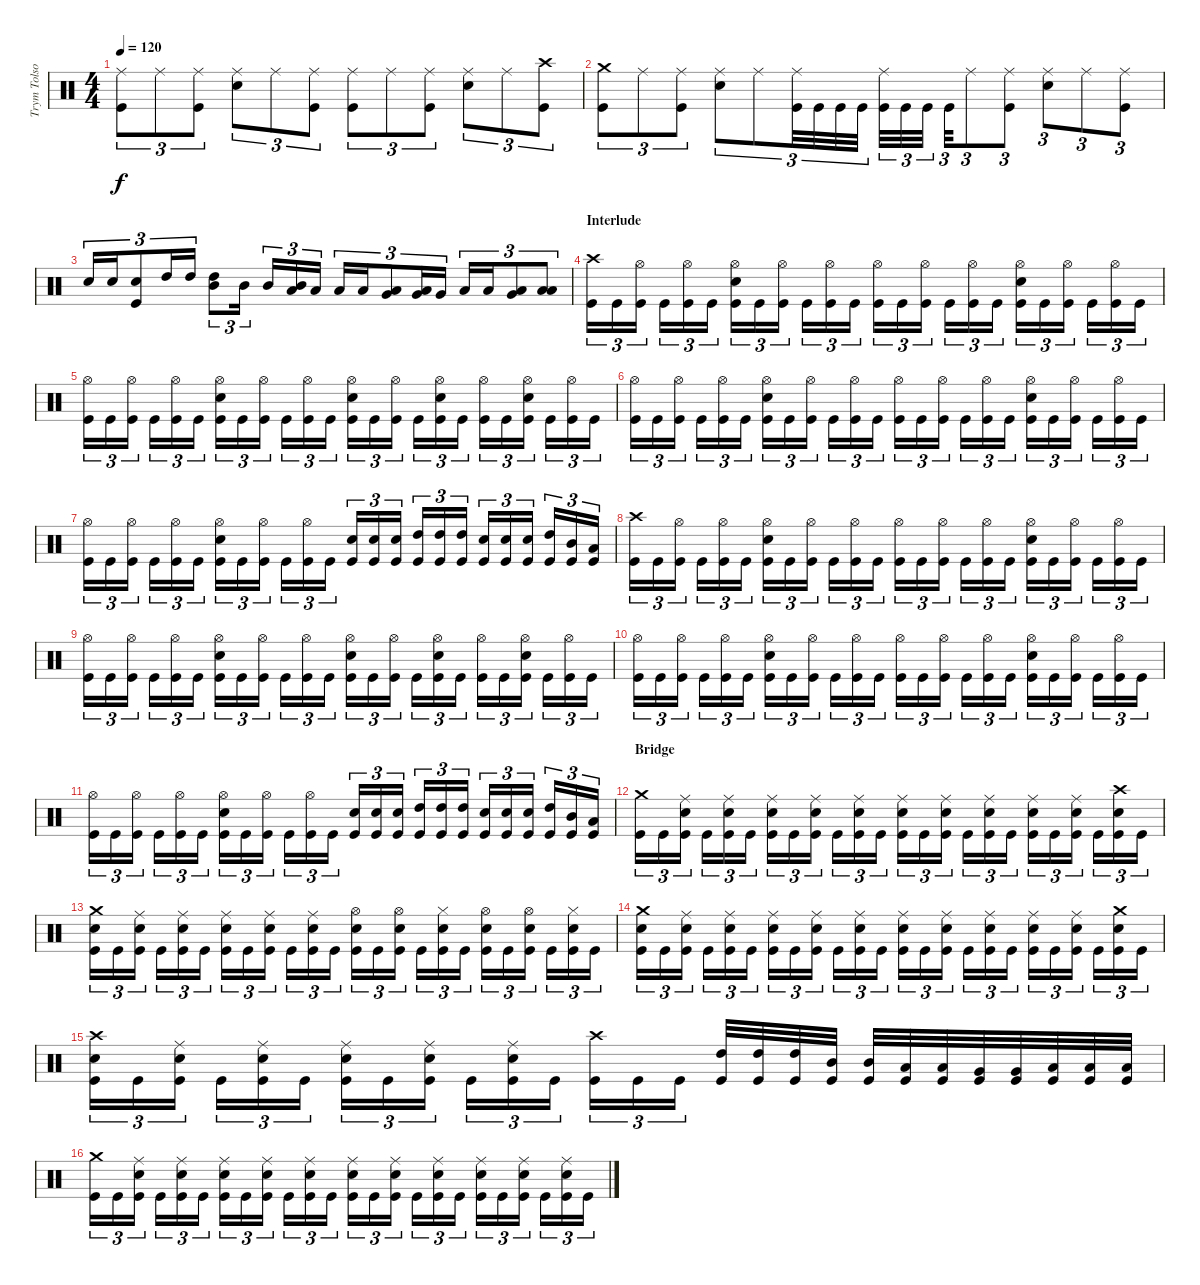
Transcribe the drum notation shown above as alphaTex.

\track ("Trym Tolson" "Trym Tolso") {instrument percussion}
\staff {score}
\articulation defaults
\ts (4 4)
\tempo 120
\clef neutral
\ks c
("Ride (middle)" "Kick (hit)").8{tu (3 2) dy f} "Ride (middle)".8{tu (3 2)} ("Ride (middle)" "Kick (hit)").8{tu (3 2)} ("Ride (middle)" "Electric Snare (hit)").8{tu (3 2)} "Ride (middle)".8{tu (3 2)} ("Ride (middle)" "Kick (hit)").8{tu (3 2)} ("Ride (middle)" "Kick (hit)").8{tu (3 2)} "Ride (middle)".8{tu (3 2)} ("Ride (middle)" "Kick (hit)").8{tu (3 2)} ("Ride (middle)" "Electric Snare (hit)").8{tu (3 2)} "Ride (middle)".8{tu (3 2)} ("Crash high (hit)" "Kick (hit)").8{tu (3 2)} |
("Crash medium (hit)" "Kick (hit)").8{tu (3 2)} "Ride (middle)".8{tu (3 2)} ("Ride (middle)" "Kick (hit)").8{tu (3 2)} ("Ride (middle)" "Electric Snare (hit)").8{tu (3 2)} "Ride (middle)".8{tu (3 2)} ("Ride (middle)" "Kick (hit)").32{tu (3 2)} "Kick (hit)".32{tu (3 2)} "Kick (hit)".32{tu (3 2)} "Kick (hit)".32{tu (3 2)} ("Ride (middle)" "Kick (hit)").32{tu (3 2)} "Kick (hit)".32{tu (3 2)} "Kick (hit)".32{tu (3 2)} "Kick (hit)".32{tu (3 2)} "Ride (middle)".8{tu (3 2)} ("Ride (middle)" "Kick (hit)").8{tu (3 2)} ("Ride (middle)" "Electric Snare (hit)").8{tu (3 2)} "Ride (middle)".8{tu (3 2)} ("Ride (middle)" "Kick (hit)").8{tu (3 2)} |
"Electric Snare (hit)".16{tu (3 2)} "Electric Snare (hit)".16{tu (3 2)} ("Electric Snare (hit)" "Kick (hit)").8{tu (3 2)} "High Tom (hit)".16{tu (3 2)} "High Tom (hit)".16{tu (3 2)} ("Mid Tom (hit)" "High Tom (hit)").8{tu (3 2)} "Mid Tom (hit)".16{tu (3 2)} "Mid Tom (hit)".16{tu (3 2)} ("Low Tom (hit)" "Mid Tom (hit)").16{tu (3 2)} "Low Tom (hit)".16{tu (3 2)} "Low Tom (hit)".16{tu (3 2)} "Low Tom (hit)".16{tu (3 2)} ("Very Low Tom (hit)" "Low Tom (hit)").8{tu (3 2)} ("Very Low Tom (hit)" "Low Tom (hit)").16{tu (3 2)} "Very Low Tom (hit)".16{tu (3 2)} "Low Floor Tom (hit)".16{tu (3 2)} "Low Floor Tom (hit)".16{tu (3 2)} ("Low Floor Tom (hit)" "Very Low Tom (hit)").8{tu (3 2)} ("Low Floor Tom (hit)" "Low Floor Tom (hit)").8{tu (3 2)} |
\section ("" "Interlude")
("Crash high (hit)" "Kick (hit)").16{tu (3 2)} "Kick (hit)".16{tu (3 2)} ("Hi-Hat (open)" "Kick (hit)").16{tu (3 2)} "Kick (hit)".16{tu (3 2)} ("Hi-Hat (open)" "Kick (hit)").16{tu (3 2)} "Kick (hit)".16{tu (3 2)} ("Hi-Hat (open)" "Electric Snare (hit)" "Kick (hit)").16{tu (3 2)} "Kick (hit)".16{tu (3 2)} ("Hi-Hat (open)" "Kick (hit)").16{tu (3 2)} "Kick (hit)".16{tu (3 2)} ("Hi-Hat (open)" "Kick (hit)").16{tu (3 2)} "Kick (hit)".16{tu (3 2)} ("Hi-Hat (open)" "Kick (hit)").16{tu (3 2)} "Kick (hit)".16{tu (3 2)} ("Hi-Hat (open)" "Kick (hit)").16{tu (3 2)} "Kick (hit)".16{tu (3 2)} ("Hi-Hat (open)" "Kick (hit)").16{tu (3 2)} "Kick (hit)".16{tu (3 2)} ("Hi-Hat (open)" "Electric Snare (hit)" "Kick (hit)").16{tu (3 2)} "Kick (hit)".16{tu (3 2)} ("Hi-Hat (open)" "Kick (hit)").16{tu (3 2)} "Kick (hit)".16{tu (3 2)} ("Hi-Hat (open)" "Kick (hit)").16{tu (3 2)} "Kick (hit)".16{tu (3 2)} |
("Hi-Hat (open)" "Kick (hit)").16{tu (3 2)} "Kick (hit)".16{tu (3 2)} ("Hi-Hat (open)" "Kick (hit)").16{tu (3 2)} "Kick (hit)".16{tu (3 2)} ("Hi-Hat (open)" "Kick (hit)").16{tu (3 2)} "Kick (hit)".16{tu (3 2)} ("Hi-Hat (open)" "Electric Snare (hit)" "Kick (hit)").16{tu (3 2)} "Kick (hit)".16{tu (3 2)} ("Hi-Hat (open)" "Kick (hit)").16{tu (3 2)} "Kick (hit)".16{tu (3 2)} ("Hi-Hat (open)" "Kick (hit)").16{tu (3 2)} "Kick (hit)".16{tu (3 2)} ("Hi-Hat (open)" "Electric Snare (hit)" "Kick (hit)").16{tu (3 2)} "Kick (hit)".16{tu (3 2)} ("Hi-Hat (open)" "Kick (hit)").16{tu (3 2)} "Kick (hit)".16{tu (3 2)} ("Hi-Hat (open)" "Electric Snare (hit)" "Kick (hit)").16{tu (3 2)} "Kick (hit)".16{tu (3 2)} ("Hi-Hat (open)" "Kick (hit)").16{tu (3 2)} "Kick (hit)".16{tu (3 2)} ("Hi-Hat (open)" "Electric Snare (hit)" "Kick (hit)").16{tu (3 2)} "Kick (hit)".16{tu (3 2)} ("Hi-Hat (open)" "Kick (hit)").16{tu (3 2)} "Kick (hit)".16{tu (3 2)} |
("Hi-Hat (open)" "Kick (hit)").16{tu (3 2)} "Kick (hit)".16{tu (3 2)} ("Hi-Hat (open)" "Kick (hit)").16{tu (3 2)} "Kick (hit)".16{tu (3 2)} ("Hi-Hat (open)" "Kick (hit)").16{tu (3 2)} "Kick (hit)".16{tu (3 2)} ("Hi-Hat (open)" "Electric Snare (hit)" "Kick (hit)").16{tu (3 2)} "Kick (hit)".16{tu (3 2)} ("Hi-Hat (open)" "Kick (hit)").16{tu (3 2)} "Kick (hit)".16{tu (3 2)} ("Hi-Hat (open)" "Kick (hit)").16{tu (3 2)} "Kick (hit)".16{tu (3 2)} ("Hi-Hat (open)" "Kick (hit)").16{tu (3 2)} "Kick (hit)".16{tu (3 2)} ("Hi-Hat (open)" "Kick (hit)").16{tu (3 2)} "Kick (hit)".16{tu (3 2)} ("Hi-Hat (open)" "Kick (hit)").16{tu (3 2)} "Kick (hit)".16{tu (3 2)} ("Hi-Hat (open)" "Electric Snare (hit)" "Kick (hit)").16{tu (3 2)} "Kick (hit)".16{tu (3 2)} ("Hi-Hat (open)" "Kick (hit)").16{tu (3 2)} "Kick (hit)".16{tu (3 2)} ("Hi-Hat (open)" "Kick (hit)").16{tu (3 2)} "Kick (hit)".16{tu (3 2)} |
("Hi-Hat (open)" "Kick (hit)").16{tu (3 2)} "Kick (hit)".16{tu (3 2)} ("Hi-Hat (open)" "Kick (hit)").16{tu (3 2)} "Kick (hit)".16{tu (3 2)} ("Hi-Hat (open)" "Kick (hit)").16{tu (3 2)} "Kick (hit)".16{tu (3 2)} ("Hi-Hat (open)" "Electric Snare (hit)" "Kick (hit)").16{tu (3 2)} "Kick (hit)".16{tu (3 2)} ("Hi-Hat (open)" "Kick (hit)").16{tu (3 2)} "Kick (hit)".16{tu (3 2)} ("Hi-Hat (open)" "Kick (hit)").16{tu (3 2)} "Kick (hit)".16{tu (3 2)} ("Electric Snare (hit)" "Kick (hit)").16{tu (3 2)} ("Electric Snare (hit)" "Kick (hit)").16{tu (3 2)} ("Electric Snare (hit)" "Kick (hit)").16{tu (3 2)} ("High Tom (hit)" "Kick (hit)").16{tu (3 2)} ("High Tom (hit)" "Kick (hit)").16{tu (3 2)} ("High Tom (hit)" "Kick (hit)").16{tu (3 2)} ("Electric Snare (hit)" "Kick (hit)").16{tu (3 2)} ("Electric Snare (hit)" "Kick (hit)").16{tu (3 2)} ("Electric Snare (hit)" "Kick (hit)").16{tu (3 2)} ("High Tom (hit)" "Kick (hit)").16{tu (3 2)} ("Mid Tom (hit)" "Kick (hit)").16{tu (3 2)} ("Low Tom (hit)" "Kick (hit)").16{tu (3 2)} |
("Crash high (hit)" "Kick (hit)").16{tu (3 2)} "Kick (hit)".16{tu (3 2)} ("Hi-Hat (open)" "Kick (hit)").16{tu (3 2)} "Kick (hit)".16{tu (3 2)} ("Hi-Hat (open)" "Kick (hit)").16{tu (3 2)} "Kick (hit)".16{tu (3 2)} ("Hi-Hat (open)" "Electric Snare (hit)" "Kick (hit)").16{tu (3 2)} "Kick (hit)".16{tu (3 2)} ("Hi-Hat (open)" "Kick (hit)").16{tu (3 2)} "Kick (hit)".16{tu (3 2)} ("Hi-Hat (open)" "Kick (hit)").16{tu (3 2)} "Kick (hit)".16{tu (3 2)} ("Hi-Hat (open)" "Kick (hit)").16{tu (3 2)} "Kick (hit)".16{tu (3 2)} ("Hi-Hat (open)" "Kick (hit)").16{tu (3 2)} "Kick (hit)".16{tu (3 2)} ("Hi-Hat (open)" "Kick (hit)").16{tu (3 2)} "Kick (hit)".16{tu (3 2)} ("Hi-Hat (open)" "Electric Snare (hit)" "Kick (hit)").16{tu (3 2)} "Kick (hit)".16{tu (3 2)} ("Hi-Hat (open)" "Kick (hit)").16{tu (3 2)} "Kick (hit)".16{tu (3 2)} ("Hi-Hat (open)" "Kick (hit)").16{tu (3 2)} "Kick (hit)".16{tu (3 2)} |
("Hi-Hat (open)" "Kick (hit)").16{tu (3 2)} "Kick (hit)".16{tu (3 2)} ("Hi-Hat (open)" "Kick (hit)").16{tu (3 2)} "Kick (hit)".16{tu (3 2)} ("Hi-Hat (open)" "Kick (hit)").16{tu (3 2)} "Kick (hit)".16{tu (3 2)} ("Hi-Hat (open)" "Electric Snare (hit)" "Kick (hit)").16{tu (3 2)} "Kick (hit)".16{tu (3 2)} ("Hi-Hat (open)" "Kick (hit)").16{tu (3 2)} "Kick (hit)".16{tu (3 2)} ("Hi-Hat (open)" "Kick (hit)").16{tu (3 2)} "Kick (hit)".16{tu (3 2)} ("Hi-Hat (open)" "Electric Snare (hit)" "Kick (hit)").16{tu (3 2)} "Kick (hit)".16{tu (3 2)} ("Hi-Hat (open)" "Kick (hit)").16{tu (3 2)} "Kick (hit)".16{tu (3 2)} ("Hi-Hat (open)" "Electric Snare (hit)" "Kick (hit)").16{tu (3 2)} "Kick (hit)".16{tu (3 2)} ("Hi-Hat (open)" "Kick (hit)").16{tu (3 2)} "Kick (hit)".16{tu (3 2)} ("Hi-Hat (open)" "Electric Snare (hit)" "Kick (hit)").16{tu (3 2)} "Kick (hit)".16{tu (3 2)} ("Hi-Hat (open)" "Kick (hit)").16{tu (3 2)} "Kick (hit)".16{tu (3 2)} |
("Hi-Hat (open)" "Kick (hit)").16{tu (3 2)} "Kick (hit)".16{tu (3 2)} ("Hi-Hat (open)" "Kick (hit)").16{tu (3 2)} "Kick (hit)".16{tu (3 2)} ("Hi-Hat (open)" "Kick (hit)").16{tu (3 2)} "Kick (hit)".16{tu (3 2)} ("Hi-Hat (open)" "Electric Snare (hit)" "Kick (hit)").16{tu (3 2)} "Kick (hit)".16{tu (3 2)} ("Hi-Hat (open)" "Kick (hit)").16{tu (3 2)} "Kick (hit)".16{tu (3 2)} ("Hi-Hat (open)" "Kick (hit)").16{tu (3 2)} "Kick (hit)".16{tu (3 2)} ("Hi-Hat (open)" "Kick (hit)").16{tu (3 2)} "Kick (hit)".16{tu (3 2)} ("Hi-Hat (open)" "Kick (hit)").16{tu (3 2)} "Kick (hit)".16{tu (3 2)} ("Hi-Hat (open)" "Kick (hit)").16{tu (3 2)} "Kick (hit)".16{tu (3 2)} ("Hi-Hat (open)" "Electric Snare (hit)" "Kick (hit)").16{tu (3 2)} "Kick (hit)".16{tu (3 2)} ("Hi-Hat (open)" "Kick (hit)").16{tu (3 2)} "Kick (hit)".16{tu (3 2)} ("Hi-Hat (open)" "Kick (hit)").16{tu (3 2)} "Kick (hit)".16{tu (3 2)} |
("Hi-Hat (open)" "Kick (hit)").16{tu (3 2)} "Kick (hit)".16{tu (3 2)} ("Hi-Hat (open)" "Kick (hit)").16{tu (3 2)} "Kick (hit)".16{tu (3 2)} ("Hi-Hat (open)" "Kick (hit)").16{tu (3 2)} "Kick (hit)".16{tu (3 2)} ("Hi-Hat (open)" "Electric Snare (hit)" "Kick (hit)").16{tu (3 2)} "Kick (hit)".16{tu (3 2)} ("Hi-Hat (open)" "Kick (hit)").16{tu (3 2)} "Kick (hit)".16{tu (3 2)} ("Hi-Hat (open)" "Kick (hit)").16{tu (3 2)} "Kick (hit)".16{tu (3 2)} ("Electric Snare (hit)" "Kick (hit)").16{tu (3 2)} ("Electric Snare (hit)" "Kick (hit)").16{tu (3 2)} ("Electric Snare (hit)" "Kick (hit)").16{tu (3 2)} ("High Tom (hit)" "Kick (hit)").16{tu (3 2)} ("High Tom (hit)" "Kick (hit)").16{tu (3 2)} ("High Tom (hit)" "Kick (hit)").16{tu (3 2)} ("Electric Snare (hit)" "Kick (hit)").16{tu (3 2)} ("Electric Snare (hit)" "Kick (hit)").16{tu (3 2)} ("Electric Snare (hit)" "Kick (hit)").16{tu (3 2)} ("High Tom (hit)" "Kick (hit)").16{tu (3 2)} ("Mid Tom (hit)" "Kick (hit)").16{tu (3 2)} ("Low Tom (hit)" "Kick (hit)").16{tu (3 2)} |
\section ("" "Bridge")
("Crash medium (hit)" "Kick (hit)").16{tu (3 2)} "Kick (hit)".16{tu (3 2)} ("Ride (middle)" "Electric Snare (hit)" "Kick (hit)").16{tu (3 2)} "Kick (hit)".16{tu (3 2)} ("Ride (middle)" "Electric Snare (hit)" "Kick (hit)").16{tu (3 2)} "Kick (hit)".16{tu (3 2)} ("Ride (middle)" "Electric Snare (hit)" "Kick (hit)").16{tu (3 2)} "Kick (hit)".16{tu (3 2)} ("Ride (middle)" "Electric Snare (hit)" "Kick (hit)").16{tu (3 2)} "Kick (hit)".16{tu (3 2)} ("Ride (middle)" "Electric Snare (hit)" "Kick (hit)").16{tu (3 2)} "Kick (hit)".16{tu (3 2)} ("Ride (middle)" "Electric Snare (hit)" "Kick (hit)").16{tu (3 2)} "Kick (hit)".16{tu (3 2)} ("Ride (middle)" "Electric Snare (hit)" "Kick (hit)").16{tu (3 2)} "Kick (hit)".16{tu (3 2)} ("Ride (middle)" "Electric Snare (hit)" "Kick (hit)").16{tu (3 2)} "Kick (hit)".16{tu (3 2)} ("Ride (middle)" "Electric Snare (hit)" "Kick (hit)").16{tu (3 2)} "Kick (hit)".16{tu (3 2)} ("Ride (middle)" "Electric Snare (hit)" "Kick (hit)").16{tu (3 2)} "Kick (hit)".16{tu (3 2)} ("Crash high (hit)" "Electric Snare (hit)" "Kick (hit)").16{tu (3 2)} "Kick (hit)".16{tu (3 2)} |
("Crash medium (hit)" "Electric Snare (hit)" "Kick (hit)").16{tu (3 2)} "Kick (hit)".16{tu (3 2)} ("Ride (middle)" "Electric Snare (hit)" "Kick (hit)").16{tu (3 2)} "Kick (hit)".16{tu (3 2)} ("Ride (middle)" "Electric Snare (hit)" "Kick (hit)").16{tu (3 2)} "Kick (hit)".16{tu (3 2)} ("Ride (middle)" "Electric Snare (hit)" "Kick (hit)").16{tu (3 2)} "Kick (hit)".16{tu (3 2)} ("Ride (middle)" "Electric Snare (hit)" "Kick (hit)").16{tu (3 2)} "Kick (hit)".16{tu (3 2)} ("Ride (middle)" "Electric Snare (hit)" "Kick (hit)").16{tu (3 2)} "Kick (hit)".16{tu (3 2)} ("Hi-Hat (open)" "Electric Snare (hit)" "Kick (hit)").16{tu (3 2)} "Kick (hit)".16{tu (3 2)} ("Hi-Hat (open)" "Electric Snare (hit)" "Kick (hit)").16{tu (3 2)} "Kick (hit)".16{tu (3 2)} ("Hi-Hat (closed)" "Electric Snare (hit)" "Kick (hit)").16{tu (3 2)} "Kick (hit)".16{tu (3 2)} ("Hi-Hat (open)" "Electric Snare (hit)" "Kick (hit)").16{tu (3 2)} "Kick (hit)".16{tu (3 2)} ("Hi-Hat (open)" "Electric Snare (hit)" "Kick (hit)").16{tu (3 2)} "Kick (hit)".16{tu (3 2)} ("Hi-Hat (closed)" "Electric Snare (hit)" "Kick (hit)").16{tu (3 2)} "Kick (hit)".16{tu (3 2)} |
("Crash medium (hit)" "Electric Snare (hit)" "Kick (hit)").16{tu (3 2)} "Kick (hit)".16{tu (3 2)} ("Ride (middle)" "Electric Snare (hit)" "Kick (hit)").16{tu (3 2)} "Kick (hit)".16{tu (3 2)} ("Ride (middle)" "Electric Snare (hit)" "Kick (hit)").16{tu (3 2)} "Kick (hit)".16{tu (3 2)} ("Ride (middle)" "Electric Snare (hit)" "Kick (hit)").16{tu (3 2)} "Kick (hit)".16{tu (3 2)} ("Ride (middle)" "Electric Snare (hit)" "Kick (hit)").16{tu (3 2)} "Kick (hit)".16{tu (3 2)} ("Ride (middle)" "Electric Snare (hit)" "Kick (hit)").16{tu (3 2)} "Kick (hit)".16{tu (3 2)} ("Ride (middle)" "Electric Snare (hit)" "Kick (hit)").16{tu (3 2)} "Kick (hit)".16{tu (3 2)} ("Ride (middle)" "Electric Snare (hit)" "Kick (hit)").16{tu (3 2)} "Kick (hit)".16{tu (3 2)} ("Ride (middle)" "Electric Snare (hit)" "Kick (hit)").16{tu (3 2)} "Kick (hit)".16{tu (3 2)} ("Ride (middle)" "Electric Snare (hit)" "Kick (hit)").16{tu (3 2)} "Kick (hit)".16{tu (3 2)} ("Ride (middle)" "Electric Snare (hit)" "Kick (hit)").16{tu (3 2)} "Kick (hit)".16{tu (3 2)} ("Crash medium (hit)" "Electric Snare (hit)" "Kick (hit)").16{tu (3 2)} "Kick (hit)".16{tu (3 2)} |
("Crash high (hit)" "Electric Snare (hit)" "Kick (hit)").16{tu (3 2)} "Kick (hit)".16{tu (3 2)} ("Ride (middle)" "Electric Snare (hit)" "Kick (hit)").16{tu (3 2)} "Kick (hit)".16{tu (3 2)} ("Ride (middle)" "Electric Snare (hit)" "Kick (hit)").16{tu (3 2)} "Kick (hit)".16{tu (3 2)} ("Ride (middle)" "Electric Snare (hit)" "Kick (hit)").16{tu (3 2)} "Kick (hit)".16{tu (3 2)} ("Ride (middle)" "Electric Snare (hit)" "Kick (hit)").16{tu (3 2)} "Kick (hit)".16{tu (3 2)} ("Ride (middle)" "Electric Snare (hit)" "Kick (hit)").16{tu (3 2)} "Kick (hit)".16{tu (3 2)} ("Crash high (hit)" "Kick (hit)").16{tu (3 2)} "Kick (hit)".16{tu (3 2)} "Kick (hit)".16{tu (3 2)} ("High Tom (hit)" "Kick (hit)").32 ("High Tom (hit)" "Kick (hit)").32 ("High Tom (hit)" "Kick (hit)").32 ("Mid Tom (hit)" "Kick (hit)").32 ("Mid Tom (hit)" "Kick (hit)").32 ("Low Tom (hit)" "Kick (hit)").32 ("Low Tom (hit)" "Kick (hit)").32 ("Very Low Tom (hit)" "Kick (hit)").32 ("Very Low Tom (hit)" "Kick (hit)").32 ("Low Floor Tom (hit)" "Kick (hit)").32 ("Low Floor Tom (hit)" "Kick (hit)").32 ("Low Floor Tom (hit)" "Kick (hit)").32 |
("Crash medium (hit)" "Kick (hit)").16{tu (3 2)} "Kick (hit)".16{tu (3 2)} ("Ride (middle)" "Electric Snare (hit)" "Kick (hit)").16{tu (3 2)} "Kick (hit)".16{tu (3 2)} ("Ride (middle)" "Electric Snare (hit)" "Kick (hit)").16{tu (3 2)} "Kick (hit)".16{tu (3 2)} ("Ride (middle)" "Electric Snare (hit)" "Kick (hit)").16{tu (3 2)} "Kick (hit)".16{tu (3 2)} ("Ride (middle)" "Electric Snare (hit)" "Kick (hit)").16{tu (3 2)} "Kick (hit)".16{tu (3 2)} ("Ride (middle)" "Electric Snare (hit)" "Kick (hit)").16{tu (3 2)} "Kick (hit)".16{tu (3 2)} ("Ride (middle)" "Electric Snare (hit)" "Kick (hit)").16{tu (3 2)} "Kick (hit)".16{tu (3 2)} ("Ride (middle)" "Electric Snare (hit)" "Kick (hit)").16{tu (3 2)} "Kick (hit)".16{tu (3 2)} ("Ride (middle)" "Electric Snare (hit)" "Kick (hit)").16{tu (3 2)} "Kick (hit)".16{tu (3 2)} ("Ride (middle)" "Electric Snare (hit)" "Kick (hit)").16{tu (3 2)} "Kick (hit)".16{tu (3 2)} ("Ride (middle)" "Electric Snare (hit)" "Kick (hit)").16{tu (3 2)} "Kick (hit)".16{tu (3 2)} ("Ride (middle)" "Electric Snare (hit)" "Kick (hit)").16{tu (3 2)} "Kick (hit)".16{tu (3 2)}
